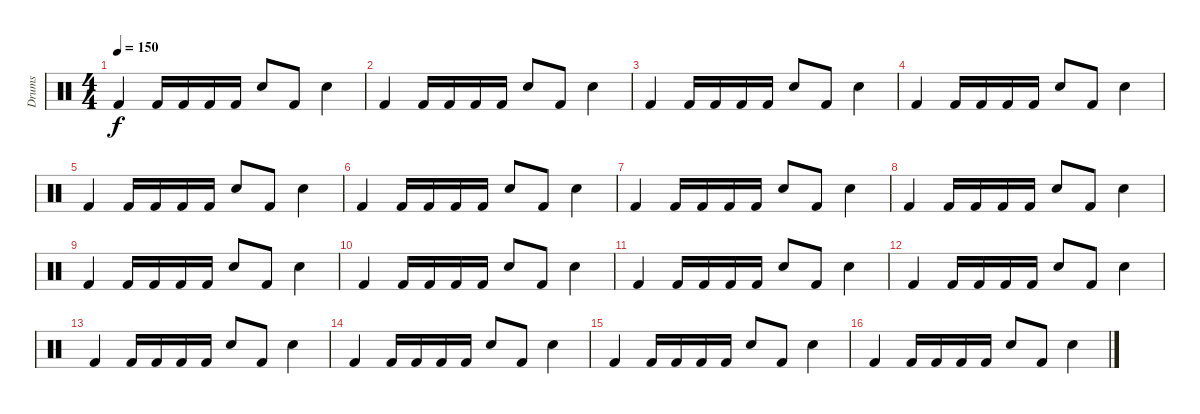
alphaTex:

\track ("Drums" "Drums") {instrument percussion}
\staff {score}
\articulation defaults
\ts (4 4)
\tempo 150
\clef neutral
\ks c "Kick (hit) 2".4{dy f} "Kick (hit) 2".16 "Kick (hit) 2".16 "Kick (hit) 2".16 "Kick (hit) 2".16 "Snare (hit) 2".8 "Kick (hit) 2".8 "Snare (hit) 2".4
|
"Kick (hit) 2".4 "Kick (hit) 2".16 "Kick (hit) 2".16 "Kick (hit) 2".16 "Kick (hit) 2".16 "Snare (hit) 2".8 "Kick (hit) 2".8 "Snare (hit) 2".4 |
"Kick (hit) 2".4 "Kick (hit) 2".16 "Kick (hit) 2".16 "Kick (hit) 2".16 "Kick (hit) 2".16 "Snare (hit) 2".8 "Kick (hit) 2".8 "Snare (hit) 2".4 |
"Kick (hit) 2".4 "Kick (hit) 2".16 "Kick (hit) 2".16 "Kick (hit) 2".16 "Kick (hit) 2".16 "Snare (hit) 2".8 "Kick (hit) 2".8 "Snare (hit) 2".4 |
"Kick (hit) 2".4 "Kick (hit) 2".16 "Kick (hit) 2".16 "Kick (hit) 2".16 "Kick (hit) 2".16 "Snare (hit) 2".8 "Kick (hit) 2".8 "Snare (hit) 2".4 |
"Kick (hit) 2".4 "Kick (hit) 2".16 "Kick (hit) 2".16 "Kick (hit) 2".16 "Kick (hit) 2".16 "Snare (hit) 2".8 "Kick (hit) 2".8 "Snare (hit) 2".4 |
"Kick (hit) 2".4 "Kick (hit) 2".16 "Kick (hit) 2".16 "Kick (hit) 2".16 "Kick (hit) 2".16 "Snare (hit) 2".8 "Kick (hit) 2".8 "Snare (hit) 2".4 |
"Kick (hit) 2".4 "Kick (hit) 2".16 "Kick (hit) 2".16 "Kick (hit) 2".16 "Kick (hit) 2".16 "Snare (hit) 2".8 "Kick (hit) 2".8 "Snare (hit) 2".4 |
"Kick (hit) 2".4 "Kick (hit) 2".16 "Kick (hit) 2".16 "Kick (hit) 2".16 "Kick (hit) 2".16 "Snare (hit) 2".8 "Kick (hit) 2".8 "Snare (hit) 2".4 |
"Kick (hit) 2".4 "Kick (hit) 2".16 "Kick (hit) 2".16 "Kick (hit) 2".16 "Kick (hit) 2".16 "Snare (hit) 2".8 "Kick (hit) 2".8 "Snare (hit) 2".4 |
"Kick (hit) 2".4 "Kick (hit) 2".16 "Kick (hit) 2".16 "Kick (hit) 2".16 "Kick (hit) 2".16 "Snare (hit) 2".8 "Kick (hit) 2".8 "Snare (hit) 2".4 |
"Kick (hit) 2".4 "Kick (hit) 2".16 "Kick (hit) 2".16 "Kick (hit) 2".16 "Kick (hit) 2".16 "Snare (hit) 2".8 "Kick (hit) 2".8 "Snare (hit) 2".4 |
"Kick (hit) 2".4 "Kick (hit) 2".16 "Kick (hit) 2".16 "Kick (hit) 2".16 "Kick (hit) 2".16 "Snare (hit) 2".8 "Kick (hit) 2".8 "Snare (hit) 2".4 |
"Kick (hit) 2".4 "Kick (hit) 2".16 "Kick (hit) 2".16 "Kick (hit) 2".16 "Kick (hit) 2".16 "Snare (hit) 2".8 "Kick (hit) 2".8 "Snare (hit) 2".4 |
"Kick (hit) 2".4 "Kick (hit) 2".16 "Kick (hit) 2".16 "Kick (hit) 2".16 "Kick (hit) 2".16 "Snare (hit) 2".8 "Kick (hit) 2".8 "Snare (hit) 2".4 |
"Kick (hit) 2".4 "Kick (hit) 2".16 "Kick (hit) 2".16 "Kick (hit) 2".16 "Kick (hit) 2".16 "Snare (hit) 2".8 "Kick (hit) 2".8 "Snare (hit) 2".4
